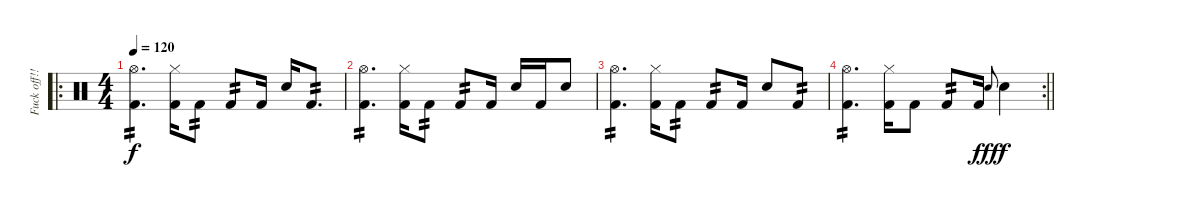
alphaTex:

\track ("Fuck off!!!     ..!." "Fuck off!!") {instrument percussion}
\staff {score}
\articulation defaults
\ro
\ts (4 4)
\tempo 120
\clef neutral
\ks c
("Kick (hit) 2" "Hi-Hat (open)").4{d tp 2 dy f} ("Kick (hit) 2" "Hi-Hat (closed)").16 "Kick (hit) 2".8{tp 2} "Kick (hit) 2".8{tp 2} "Kick (hit) 2".16 "Snare (hit) 2".16 "Kick (hit) 2".8{d tp 2} |
("Kick (hit) 2" "Hi-Hat (open)").4{d tp 2} ("Kick (hit) 2" "Hi-Hat (closed)").16 "Kick (hit) 2".8{tp 2} "Kick (hit) 2".8{tp 2} "Kick (hit) 2".16 "Snare (hit) 2".16 "Kick (hit) 2".16 "Snare (hit) 2".8 |
("Kick (hit) 2" "Hi-Hat (open)").4{d tp 2} ("Kick (hit) 2" "Hi-Hat (closed)").16 "Kick (hit) 2".8{tp 2} "Kick (hit) 2".8{tp 2} "Kick (hit) 2".16 "Snare (hit) 2".8 "Kick (hit) 2".8{tp 2} |
\rc 2
\barLineRight lightlight
("Kick (hit) 2" "Hi-Hat (open)").4{d tp 2} ("Kick (hit) 2" "Hi-Hat (closed)").16 "Kick (hit) 2".8 "Kick (hit) 2".8{tp 2} "Kick (hit) 2".16 "Snare (hit) 2".8{gr onbeat dy fff} "Snare (hit) 2".4{dy f}
